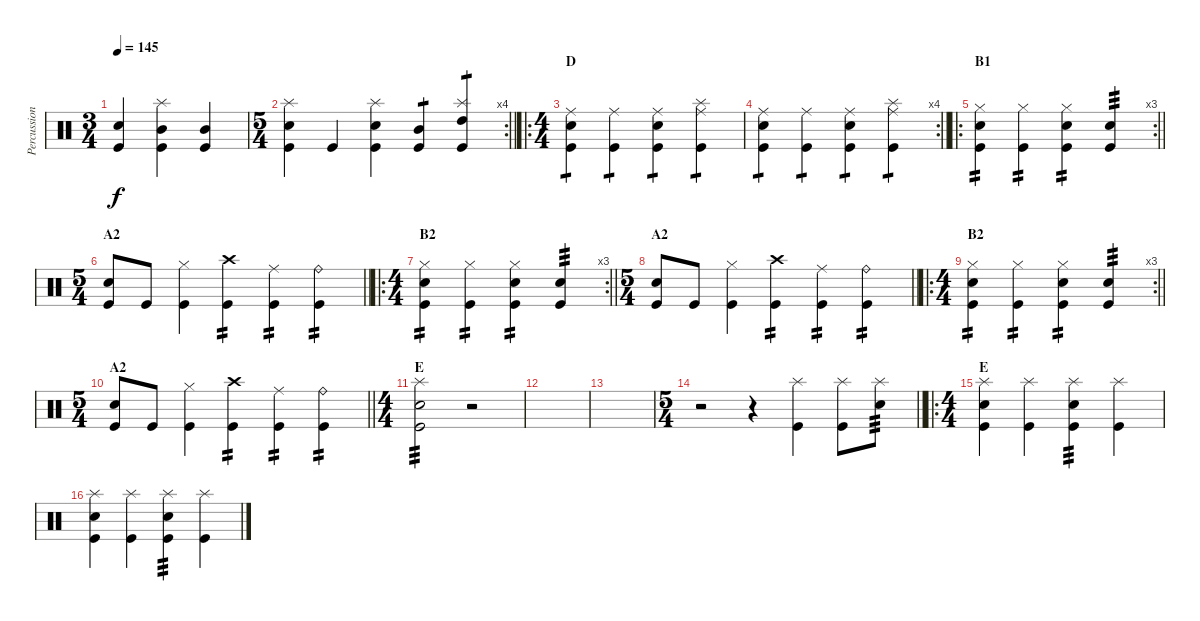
\track ("Percussion" "Percussion") {instrument percussion}
\staff {score}
\articulation defaults
\ts (3 4)
\tempo 145
\clef neutral
\ks c
("Snare (hit) 2" "Kick (hit)").4{dy f} ("Mid Tom (hit)" "Kick (hit)" "Splash (hit)").4 ("Mid Tom (hit)" "Kick (hit)").4 |
\rc 4
\ts (5 4)
\barLineRight lightlight
("Kick (hit)" "Snare (hit) 2" "Splash (hit)").4 "Kick (hit)".4 ("Kick (hit)" "Snare (hit) 2" "Splash (hit)").4 ("Kick (hit)" "Mid Tom (hit)").4{tp 1} ("Kick (hit)" "High Tom (hit)" "Splash (hit)").4{tp 1} |
\ro
\ts (4 4)
\section ("" "D")
("Kick (hit)" "Snare (hit) 2" "Ride (middle)").4{tp 1} ("Kick (hit)" "Ride (middle)").4{tp 1} ("Kick (hit)" "Snare (hit) 2" "Ride (middle)").4{tp 1} ("Kick (hit)" "Splash (hit)" "Ride (middle)").4{tp 1} |
\rc 4
\barLineRight lightlight
("Kick (hit)" "Snare (hit) 2" "Ride (middle)").4{tp 1} ("Kick (hit)" "Ride (middle)").4{tp 1} ("Kick (hit)" "Snare (hit) 2" "Ride (middle)").4{tp 1} ("Kick (hit)" "Splash (hit)" "Ride (middle)").4{tp 1} |
\ro
\rc 3
\section ("" "B1")
\barLineRight lightlight
("Kick (hit)" "Snare (hit) 2" "Hi-Hat (closed)").4{tp 2} ("Kick (hit)" "Hi-Hat (closed)").4{tp 2} ("Kick (hit)" "Snare (hit) 2" "Hi-Hat (closed)").4{tp 2} ("Kick (hit)" "Snare (hit) 2").4{tp 3} |
\ts (5 4)
\section ("" "A2")
\barLineRight lightlight
("Kick (hit)" "Snare (hit) 2").8 "Kick (hit)".8 ("Kick (hit)" "Hi-Hat (closed)").4 ("Kick (hit)" "Crash high (hit)").4{tp 2} ("Kick (hit)" "Ride (middle)").4{tp 2} ("Kick (hit)" "Ride (bell)").4{tp 2} |
\ro
\rc 3
\ts (4 4)
\section ("" "B2")
\barLineRight lightlight
("Kick (hit)" "Snare (hit) 2" "Hi-Hat (closed)").4{tp 2} ("Kick (hit)" "Hi-Hat (closed)").4{tp 2} ("Kick (hit)" "Snare (hit) 2" "Hi-Hat (closed)").4{tp 2} ("Kick (hit)" "Snare (hit) 2").4{tp 3} |
\ts (5 4)
\section ("" "A2")
\barLineRight lightlight
("Kick (hit)" "Snare (hit) 2").8 "Kick (hit)".8 ("Kick (hit)" "Hi-Hat (closed)").4 ("Kick (hit)" "Crash high (hit)").4{tp 2} ("Kick (hit)" "Ride (middle)").4{tp 2} ("Kick (hit)" "Ride (bell)").4{tp 2} |
\ro
\rc 3
\ts (4 4)
\section ("" "B2")
\barLineRight lightlight
("Kick (hit)" "Snare (hit) 2" "Hi-Hat (closed)").4{tp 2} ("Kick (hit)" "Hi-Hat (closed)").4{tp 2} ("Kick (hit)" "Snare (hit) 2" "Hi-Hat (closed)").4{tp 2} ("Kick (hit)" "Snare (hit) 2").4{tp 3} |
\ts (5 4)
\section ("" "A2")
\barLineRight lightlight
("Kick (hit)" "Snare (hit) 2").8 "Kick (hit)".8 ("Kick (hit)" "Hi-Hat (closed)").4 ("Kick (hit)" "Crash high (hit)").4{tp 2} ("Kick (hit)" "Ride (middle)").4{tp 2} ("Kick (hit)" "Ride (bell)").4{tp 2} |
\ts (4 4)
\section ("" "E")
("Kick (hit)" "Snare (hit) 2" "Splash (hit)").2{tp 3} r.2 |
|
|
\ts (5 4)
\barLineRight lightlight
r.2 r.4 ("Splash (hit)" "Kick (hit)").4 ("Splash (hit)" "Kick (hit)").8 ("Splash (hit)" "Snare (hit) 2").8{tp 3} |
\ro
\ts (4 4)
\section ("" "E")
("Splash (hit)" "Kick (hit)" "Snare (hit) 2").4 ("Splash (hit)" "Kick (hit)").4 ("Splash (hit)" "Kick (hit)" "Snare (hit) 2").4{tp 3} ("Splash (hit)" "Kick (hit)").4 |
("Splash (hit)" "Kick (hit)" "Snare (hit) 2").4 ("Splash (hit)" "Kick (hit)").4 ("Splash (hit)" "Kick (hit)" "Snare (hit) 2").4{tp 3} ("Splash (hit)" "Kick (hit)").4
